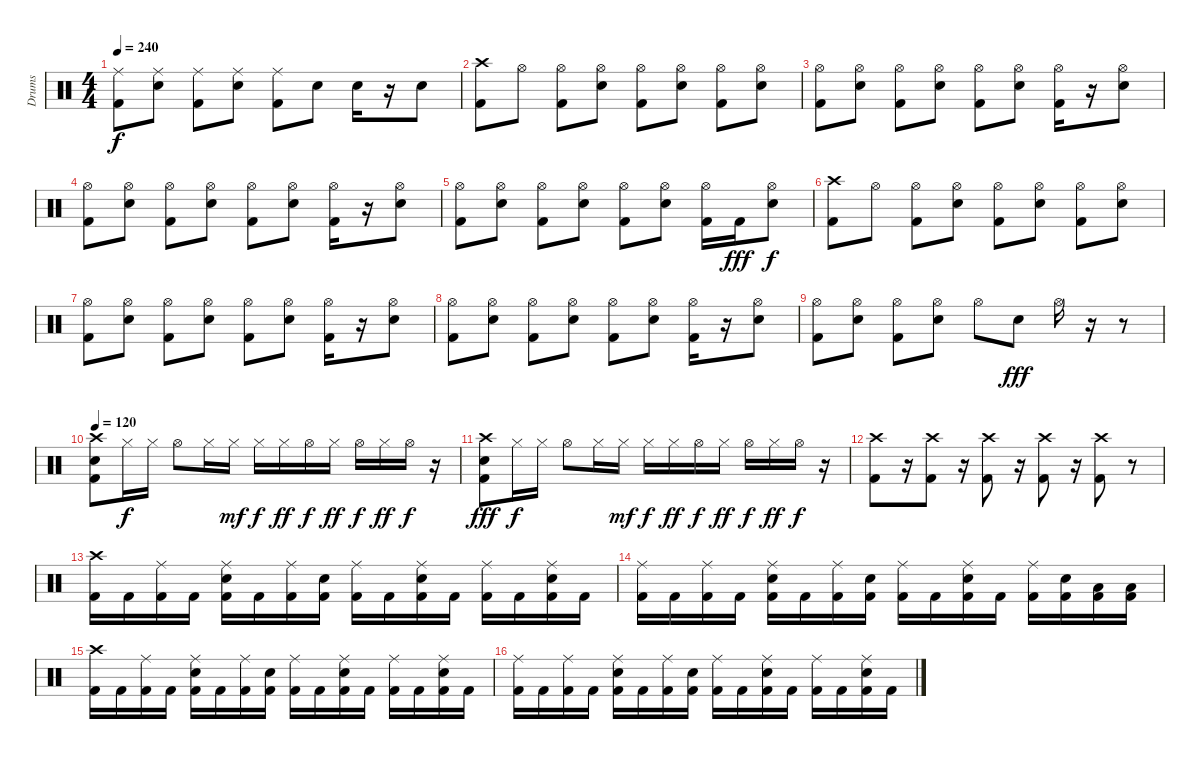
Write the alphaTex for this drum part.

\track ("Drums" "Drums") {instrument percussion}
\staff {score}
\articulation defaults
\ts (4 4)
\tempo 240
\clef neutral
\ks c
("Ride (middle)" "Kick (hit) 2").8{dy f} ("Ride (middle)" "Snare (hit) 2").8 ("Ride (middle)" "Kick (hit) 2").8 ("Ride (middle)" "Snare (hit) 2").8 ("Ride (middle)" "Kick (hit) 2").8 "Snare (hit) 2".8 "Snare (hit) 2".16 r.16 "Snare (hit) 2".8 |
("Crash high (hit)" "Kick (hit) 2").8 "Hi-Hat (open)".8 ("Hi-Hat (open)" "Kick (hit) 2").8 ("Hi-Hat (open)" "Snare (hit) 2").8 ("Hi-Hat (open)" "Kick (hit) 2").8 ("Hi-Hat (open)" "Snare (hit) 2").8 ("Hi-Hat (open)" "Kick (hit) 2").8 ("Hi-Hat (open)" "Snare (hit) 2").8 |
("Hi-Hat (open)" "Kick (hit) 2").8 ("Hi-Hat (open)" "Snare (hit) 2").8 ("Hi-Hat (open)" "Kick (hit) 2").8 ("Hi-Hat (open)" "Snare (hit) 2").8 ("Hi-Hat (open)" "Kick (hit) 2").8 ("Hi-Hat (open)" "Snare (hit) 2").8 ("Hi-Hat (open)" "Kick (hit) 2").16 r.16 ("Hi-Hat (open)" "Snare (hit) 2").8 |
("Hi-Hat (open)" "Kick (hit) 2").8 ("Hi-Hat (open)" "Snare (hit) 2").8 ("Hi-Hat (open)" "Kick (hit) 2").8 ("Hi-Hat (open)" "Snare (hit) 2").8 ("Hi-Hat (open)" "Kick (hit) 2").8 ("Hi-Hat (open)" "Snare (hit) 2").8 ("Hi-Hat (open)" "Kick (hit) 2").16 r.16 ("Hi-Hat (open)" "Snare (hit) 2").8 |
("Hi-Hat (open)" "Kick (hit) 2").8 ("Hi-Hat (open)" "Snare (hit) 2").8 ("Hi-Hat (open)" "Kick (hit) 2").8 ("Hi-Hat (open)" "Snare (hit) 2").8 ("Hi-Hat (open)" "Kick (hit) 2").8 ("Hi-Hat (open)" "Snare (hit) 2").8 ("Hi-Hat (open)" "Kick (hit) 2").16 "Kick (hit) 2".16{dy fff} ("Hi-Hat (open)" "Snare (hit) 2").8{dy f} |
("Crash high (hit)" "Kick (hit) 2").8 "Hi-Hat (open)".8 ("Hi-Hat (open)" "Kick (hit) 2").8 ("Hi-Hat (open)" "Snare (hit) 2").8 ("Hi-Hat (open)" "Kick (hit) 2").8 ("Hi-Hat (open)" "Snare (hit) 2").8 ("Hi-Hat (open)" "Kick (hit) 2").8 ("Hi-Hat (open)" "Snare (hit) 2").8 |
("Hi-Hat (open)" "Kick (hit) 2").8 ("Hi-Hat (open)" "Snare (hit) 2").8 ("Hi-Hat (open)" "Kick (hit) 2").8 ("Hi-Hat (open)" "Snare (hit) 2").8 ("Hi-Hat (open)" "Kick (hit) 2").8 ("Hi-Hat (open)" "Snare (hit) 2").8 ("Hi-Hat (open)" "Kick (hit) 2").16 r.16 ("Hi-Hat (open)" "Snare (hit) 2").8 |
("Hi-Hat (open)" "Kick (hit) 2").8 ("Hi-Hat (open)" "Snare (hit) 2").8 ("Hi-Hat (open)" "Kick (hit) 2").8 ("Hi-Hat (open)" "Snare (hit) 2").8 ("Hi-Hat (open)" "Kick (hit) 2").8 ("Hi-Hat (open)" "Snare (hit) 2").8 ("Hi-Hat (open)" "Kick (hit) 2").16 r.16 ("Hi-Hat (open)" "Snare (hit) 2").8 |
("Hi-Hat (open)" "Kick (hit) 2").8 ("Hi-Hat (open)" "Snare (hit) 2").8 ("Hi-Hat (open)" "Kick (hit) 2").8 ("Hi-Hat (open)" "Snare (hit) 2").8 "Hi-Hat (open)".8 "Snare (hit) 2".8{dy fff} "Hi-Hat (open)".16 r.16 r.8 |
\tempo 120
("Crash high (hit)" "Kick (hit) 2" "Snare (hit) 2").8 "Hi-Hat (closed)".16{dy f} "Hi-Hat (closed)".16 "Hi-Hat (open)".8 "Hi-Hat (closed)".16 "Hi-Hat (closed)".16{dy mf} "Hi-Hat (closed)".16{dy f} "Hi-Hat (closed)".16{dy ff} "Hi-Hat (open)".16{dy f} "Hi-Hat (closed)".16{dy ff} "Hi-Hat (open)".16{dy f} "Hi-Hat (closed)".16{dy ff} "Hi-Hat (open)".16{dy f} r.16 |
("Crash high (hit)" "Kick (hit) 2" "Snare (hit) 2").8{dy fff} "Hi-Hat (closed)".16{dy f} "Hi-Hat (closed)".16 "Hi-Hat (open)".8 "Hi-Hat (closed)".16 "Hi-Hat (closed)".16{dy mf} "Hi-Hat (closed)".16{dy f} "Hi-Hat (closed)".16{dy ff} "Hi-Hat (open)".16{dy f} "Hi-Hat (closed)".16{dy ff} "Hi-Hat (open)".16{dy f} "Hi-Hat (closed)".16{dy ff} "Hi-Hat (open)".16{dy f} r.16 |
("Crash high (hit)" "Kick (hit) 2").8 r.16 ("Crash high (hit)" "Kick (hit) 2").8 r.16 ("Crash high (hit)" "Kick (hit) 2").8 r.16 ("Crash high (hit)" "Kick (hit) 2").8 r.16 ("Crash high (hit)" "Kick (hit) 2").8 r.8 |
("Crash high (hit)" "Kick (hit) 2").16 "Kick (hit) 2".16 ("Ride (middle)" "Kick (hit) 2").16 "Kick (hit) 2".16 ("Ride (middle)" "Snare (hit) 2" "Kick (hit) 2").16 "Kick (hit) 2".16 ("Ride (middle)" "Kick (hit) 2").16 ("Snare (hit) 2" "Kick (hit) 2").16 ("Ride (middle)" "Kick (hit) 2").16 "Kick (hit) 2".16 ("Ride (middle)" "Snare (hit) 2" "Kick (hit) 2").16 "Kick (hit) 2".16 ("Ride (middle)" "Kick (hit) 2").16 "Kick (hit) 2".16 ("Ride (middle)" "Snare (hit) 2" "Kick (hit) 2").16 "Kick (hit) 2".16 |
("Ride (middle)" "Kick (hit) 2").16 "Kick (hit) 2".16 ("Ride (middle)" "Kick (hit) 2").16 "Kick (hit) 2".16 ("Ride (middle)" "Snare (hit) 2" "Kick (hit) 2").16 "Kick (hit) 2".16 ("Ride (middle)" "Kick (hit) 2").16 ("Snare (hit) 2" "Kick (hit) 2").16 ("Ride (middle)" "Kick (hit) 2").16 "Kick (hit) 2".16 ("Ride (middle)" "Snare (hit) 2" "Kick (hit) 2").16 "Kick (hit) 2".16 ("Ride (middle)" "Kick (hit) 2").16 ("Snare (hit) 2" "Kick (hit) 2").16 ("Low Floor Tom (hit)" "Kick (hit) 2").16 ("Low Floor Tom (hit)" "Kick (hit) 2").16 |
("Crash high (hit)" "Kick (hit) 2").16 "Kick (hit) 2".16 ("Ride (middle)" "Kick (hit) 2").16 "Kick (hit) 2".16 ("Ride (middle)" "Snare (hit) 2" "Kick (hit) 2").16 "Kick (hit) 2".16 ("Ride (middle)" "Kick (hit) 2").16 ("Snare (hit) 2" "Kick (hit) 2").16 ("Ride (middle)" "Kick (hit) 2").16 "Kick (hit) 2".16 ("Ride (middle)" "Snare (hit) 2" "Kick (hit) 2").16 "Kick (hit) 2".16 ("Ride (middle)" "Kick (hit) 2").16 "Kick (hit) 2".16 ("Ride (middle)" "Snare (hit) 2" "Kick (hit) 2").16 "Kick (hit) 2".16 |
("Ride (middle)" "Kick (hit) 2").16 "Kick (hit) 2".16 ("Ride (middle)" "Kick (hit) 2").16 "Kick (hit) 2".16 ("Ride (middle)" "Snare (hit) 2" "Kick (hit) 2").16 "Kick (hit) 2".16 ("Ride (middle)" "Kick (hit) 2").16 ("Snare (hit) 2" "Kick (hit) 2").16 ("Ride (middle)" "Kick (hit) 2").16 "Kick (hit) 2".16 ("Ride (middle)" "Snare (hit) 2" "Kick (hit) 2").16 "Kick (hit) 2".16 ("Ride (middle)" "Kick (hit) 2").16 "Kick (hit) 2".16 ("Ride (middle)" "Snare (hit) 2" "Kick (hit) 2").16 "Kick (hit) 2".16
